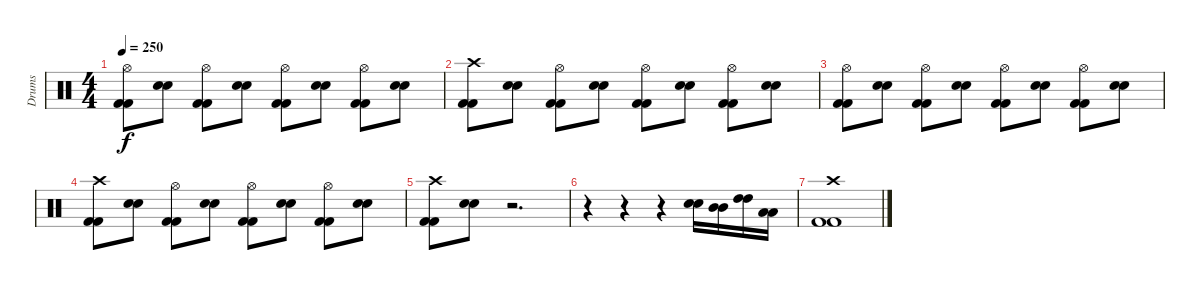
\track ("Drums" "Drums") {instrument percussion}
\staff {score}
\articulation defaults
\ts (4 4)
\tempo 250
\clef neutral
\ks c
("Kick (hit) 2" "Kick (hit) 2" "Hi-Hat (open)").8{dy f} ("Electric Snare (hit)" "Electric Snare (hit)").8 ("Kick (hit) 2" "Kick (hit) 2" "Hi-Hat (open)").8 ("Electric Snare (hit)" "Electric Snare (hit)").8 ("Kick (hit) 2" "Kick (hit) 2" "Hi-Hat (open)").8 ("Electric Snare (hit)" "Electric Snare (hit)").8 ("Kick (hit) 2" "Kick (hit) 2" "Hi-Hat (open)").8 ("Electric Snare (hit)" "Electric Snare (hit)").8 |
("Kick (hit) 2" "Kick (hit) 2" "Crash high (hit)").8 ("Electric Snare (hit)" "Electric Snare (hit)").8 ("Kick (hit) 2" "Kick (hit) 2" "Hi-Hat (open)").8 ("Electric Snare (hit)" "Electric Snare (hit)").8 ("Kick (hit) 2" "Kick (hit) 2" "Hi-Hat (open)").8 ("Electric Snare (hit)" "Electric Snare (hit)").8 ("Kick (hit) 2" "Kick (hit) 2" "Hi-Hat (open)").8 ("Electric Snare (hit)" "Electric Snare (hit)").8 |
("Kick (hit) 2" "Kick (hit) 2" "Hi-Hat (open)").8 ("Electric Snare (hit)" "Electric Snare (hit)").8 ("Kick (hit) 2" "Kick (hit) 2" "Hi-Hat (open)").8 ("Electric Snare (hit)" "Electric Snare (hit)").8 ("Kick (hit) 2" "Kick (hit) 2" "Hi-Hat (open)").8 ("Electric Snare (hit)" "Electric Snare (hit)").8 ("Kick (hit) 2" "Kick (hit) 2" "Hi-Hat (open)").8 ("Electric Snare (hit)" "Electric Snare (hit)").8 |
("Kick (hit) 2" "Kick (hit) 2" "Crash high (hit)").8 ("Electric Snare (hit)" "Electric Snare (hit)").8 ("Kick (hit) 2" "Kick (hit) 2" "Hi-Hat (open)").8 ("Electric Snare (hit)" "Electric Snare (hit)").8 ("Kick (hit) 2" "Kick (hit) 2" "Hi-Hat (open)").8 ("Electric Snare (hit)" "Electric Snare (hit)").8 ("Kick (hit) 2" "Kick (hit) 2" "Hi-Hat (open)").8 ("Electric Snare (hit)" "Electric Snare (hit)").8 |
("Kick (hit) 2" "Kick (hit) 2" "Crash high (hit)").8 ("Electric Snare (hit)" "Electric Snare (hit)").8 r.2{d} |
r.4 r.4 r.4 ("Electric Snare (hit)" "Electric Snare (hit)").16 ("Mid Tom (hit)" "Mid Tom (hit)").16 ("High Tom (hit)" "High Tom (hit)").16 ("Low Floor Tom (hit)" "Low Floor Tom (hit)").16 |
("Kick (hit) 2" "Kick (hit) 2" "Crash high (hit)").1
